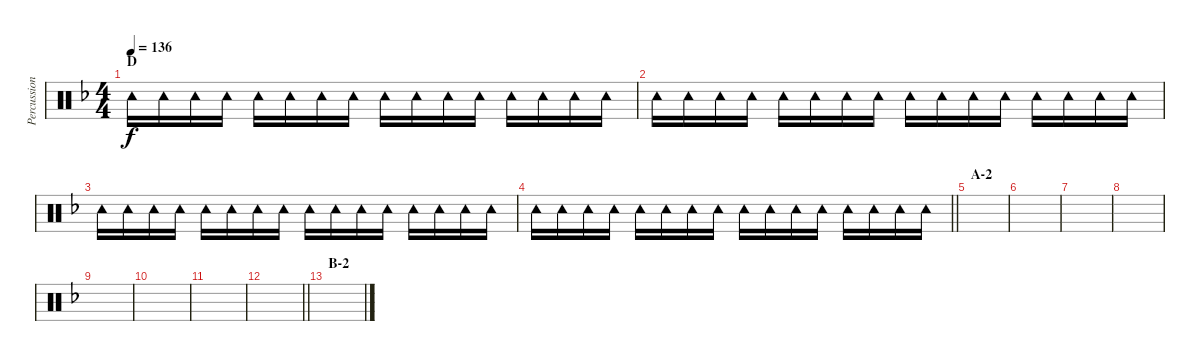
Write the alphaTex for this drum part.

\track ("Percussion" "Percussion") {instrument percussion}
\staff {score}
\articulation defaults
\ts (4 4)
\section ("" "D")
\tempo 136
\clef neutral
\ks dminor "Tambourine (hit)".16{dy f} "Tambourine (hit)".16 "Tambourine (hit)".16 "Tambourine (hit)".16 "Tambourine (hit)".16 "Tambourine (hit)".16 "Tambourine (hit)".16 "Tambourine (hit)".16 "Tambourine (hit)".16 "Tambourine (hit)".16 "Tambourine (hit)".16 "Tambourine (hit)".16 "Tambourine (hit)".16 "Tambourine (hit)".16 "Tambourine (hit)".16 "Tambourine (hit)".16
|
"Tambourine (hit)".16 "Tambourine (hit)".16 "Tambourine (hit)".16 "Tambourine (hit)".16 "Tambourine (hit)".16 "Tambourine (hit)".16 "Tambourine (hit)".16 "Tambourine (hit)".16 "Tambourine (hit)".16 "Tambourine (hit)".16 "Tambourine (hit)".16 "Tambourine (hit)".16 "Tambourine (hit)".16 "Tambourine (hit)".16 "Tambourine (hit)".16 "Tambourine (hit)".16 |
"Tambourine (hit)".16 "Tambourine (hit)".16 "Tambourine (hit)".16 "Tambourine (hit)".16 "Tambourine (hit)".16 "Tambourine (hit)".16 "Tambourine (hit)".16 "Tambourine (hit)".16 "Tambourine (hit)".16 "Tambourine (hit)".16 "Tambourine (hit)".16 "Tambourine (hit)".16 "Tambourine (hit)".16 "Tambourine (hit)".16 "Tambourine (hit)".16 "Tambourine (hit)".16 |
\barLineRight lightlight "Tambourine (hit)".16 "Tambourine (hit)".16 "Tambourine (hit)".16 "Tambourine (hit)".16 "Tambourine (hit)".16 "Tambourine (hit)".16 "Tambourine (hit)".16 "Tambourine (hit)".16 "Tambourine (hit)".16 "Tambourine (hit)".16 "Tambourine (hit)".16 "Tambourine (hit)".16 "Tambourine (hit)".16 "Tambourine (hit)".16 "Tambourine (hit)".16 "Tambourine (hit)".16
|
\section ("" "A-2")
|
|
|
|
|
|
|
\barLineRight lightlight
|
\section ("" "B-2")
